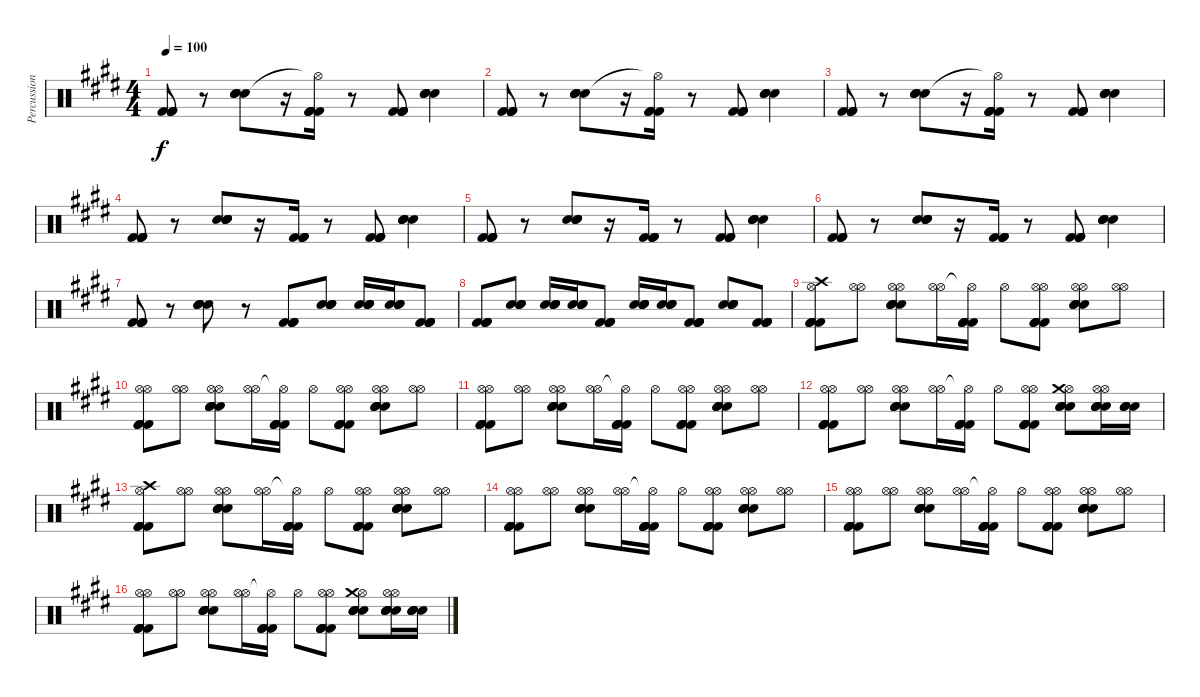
\track ("Percussion" "Percussion") {instrument percussion}
\staff {score}
\articulation defaults
\ts (4 4)
\tempo 100
\clef neutral
\ks e
("Kick (hit) 2" "Kick (hit) 2" "Kick (hit) 2" "Kick (hit) 2").8{dy f} r.8 ("Electric Snare (hit)" "Electric Snare (hit)" "Electric Snare (hit)" "Electric Snare (hit)").8 r.16 ("Hi-Hat (open)"{t} "Kick (hit) 2" "Kick (hit) 2" "Kick (hit) 2" "Kick (hit) 2").16 r.8 ("Kick (hit) 2" "Kick (hit) 2" "Kick (hit) 2" "Kick (hit) 2").8 ("Electric Snare (hit)" "Electric Snare (hit)" "Electric Snare (hit)" "Electric Snare (hit)").4 |
("Kick (hit) 2" "Kick (hit) 2" "Kick (hit) 2" "Kick (hit) 2").8 r.8 ("Electric Snare (hit)" "Electric Snare (hit)" "Electric Snare (hit)" "Electric Snare (hit)").8 r.16 ("Hi-Hat (open)"{t} "Kick (hit) 2" "Kick (hit) 2" "Kick (hit) 2" "Kick (hit) 2").16 r.8 ("Kick (hit) 2" "Kick (hit) 2" "Kick (hit) 2" "Kick (hit) 2").8 ("Electric Snare (hit)" "Electric Snare (hit)" "Electric Snare (hit)" "Electric Snare (hit)").4 |
("Kick (hit) 2" "Kick (hit) 2" "Kick (hit) 2" "Kick (hit) 2").8 r.8 ("Electric Snare (hit)" "Electric Snare (hit)" "Electric Snare (hit)" "Electric Snare (hit)").8 r.16 ("Hi-Hat (open)"{t} "Kick (hit) 2" "Kick (hit) 2" "Kick (hit) 2" "Kick (hit) 2").16 r.8 ("Kick (hit) 2" "Kick (hit) 2" "Kick (hit) 2" "Kick (hit) 2").8 ("Electric Snare (hit)" "Electric Snare (hit)" "Electric Snare (hit)" "Electric Snare (hit)").4 |
("Kick (hit) 2" "Kick (hit) 2" "Kick (hit) 2" "Kick (hit) 2").8 r.8 ("Electric Snare (hit)" "Electric Snare (hit)" "Electric Snare (hit)" "Electric Snare (hit)").8 r.16 ("Kick (hit) 2" "Kick (hit) 2" "Kick (hit) 2" "Kick (hit) 2").16 r.8 ("Kick (hit) 2" "Kick (hit) 2" "Kick (hit) 2" "Kick (hit) 2").8 ("Electric Snare (hit)" "Electric Snare (hit)" "Electric Snare (hit)" "Electric Snare (hit)").4 |
("Kick (hit) 2" "Kick (hit) 2" "Kick (hit) 2" "Kick (hit) 2").8 r.8 ("Electric Snare (hit)" "Electric Snare (hit)" "Electric Snare (hit)" "Electric Snare (hit)").8 r.16 ("Kick (hit) 2" "Kick (hit) 2" "Kick (hit) 2" "Kick (hit) 2").16 r.8 ("Kick (hit) 2" "Kick (hit) 2" "Kick (hit) 2" "Kick (hit) 2").8 ("Electric Snare (hit)" "Electric Snare (hit)" "Electric Snare (hit)" "Electric Snare (hit)").4 |
("Kick (hit) 2" "Kick (hit) 2" "Kick (hit) 2" "Kick (hit) 2").8 r.8 ("Electric Snare (hit)" "Electric Snare (hit)" "Electric Snare (hit)" "Electric Snare (hit)").8 r.16 ("Kick (hit) 2" "Kick (hit) 2" "Kick (hit) 2" "Kick (hit) 2").16 r.8 ("Kick (hit) 2" "Kick (hit) 2" "Kick (hit) 2" "Kick (hit) 2").8 ("Electric Snare (hit)" "Electric Snare (hit)" "Electric Snare (hit)" "Electric Snare (hit)").4 |
("Kick (hit) 2" "Kick (hit) 2" "Kick (hit) 2" "Kick (hit) 2").8 r.8 ("Electric Snare (hit)" "Electric Snare (hit)" "Electric Snare (hit)" "Electric Snare (hit)").8 r.8 ("Kick (hit) 2" "Kick (hit) 2" "Kick (hit) 2" "Kick (hit) 2").8 ("Electric Snare (hit)" "Electric Snare (hit)" "Electric Snare (hit)" "Electric Snare (hit)").8 ("Electric Snare (hit)" "Electric Snare (hit)" "Electric Snare (hit)" "Electric Snare (hit)").16 ("Electric Snare (hit)" "Electric Snare (hit)" "Electric Snare (hit)" "Electric Snare (hit)").16 ("Kick (hit) 2" "Kick (hit) 2" "Kick (hit) 2" "Kick (hit) 2").8 |
("Kick (hit) 2" "Kick (hit) 2" "Kick (hit) 2" "Kick (hit) 2").8 ("Electric Snare (hit)" "Electric Snare (hit)" "Electric Snare (hit)" "Electric Snare (hit)").8 ("Electric Snare (hit)" "Electric Snare (hit)" "Electric Snare (hit)" "Electric Snare (hit)").16 ("Electric Snare (hit)" "Electric Snare (hit)" "Electric Snare (hit)" "Electric Snare (hit)").16 ("Kick (hit) 2" "Kick (hit) 2" "Kick (hit) 2" "Kick (hit) 2").8 ("Electric Snare (hit)" "Electric Snare (hit)" "Electric Snare (hit)" "Electric Snare (hit)").16 ("Electric Snare (hit)" "Electric Snare (hit)" "Electric Snare (hit)" "Electric Snare (hit)").16 ("Kick (hit) 2" "Kick (hit) 2" "Kick (hit) 2" "Kick (hit) 2").8 ("Electric Snare (hit)" "Electric Snare (hit)" "Electric Snare (hit)" "Electric Snare (hit)").8 ("Kick (hit) 2" "Kick (hit) 2" "Kick (hit) 2" "Kick (hit) 2").8 |
("Hi-Hat (open)" "Kick (hit) 2" "Kick (hit) 2" "Kick (hit) 2" "Kick (hit) 2" "Crash high (hit)").8 ("Hi-Hat (open)" "Hi-Hat (open)").8 ("Hi-Hat (open)" "Electric Snare (hit)" "Electric Snare (hit)" "Electric Snare (hit)" "Electric Snare (hit)" "Hi-Hat (open)").8 ("Hi-Hat (open)" "Hi-Hat (open)").16 ("Hi-Hat (open)"{t} "Kick (hit) 2" "Kick (hit) 2" "Kick (hit) 2" "Kick (hit) 2").16 "Hi-Hat (open)".8 ("Hi-Hat (open)" "Kick (hit) 2" "Kick (hit) 2" "Kick (hit) 2" "Kick (hit) 2" "Hi-Hat (open)").8 ("Hi-Hat (open)" "Electric Snare (hit)" "Electric Snare (hit)" "Electric Snare (hit)" "Electric Snare (hit)" "Hi-Hat (open)").8 ("Hi-Hat (open)" "Hi-Hat (open)").8 |
("Hi-Hat (open)" "Kick (hit) 2" "Kick (hit) 2" "Kick (hit) 2" "Kick (hit) 2" "Hi-Hat (open)").8 ("Hi-Hat (open)" "Hi-Hat (open)").8 ("Hi-Hat (open)" "Electric Snare (hit)" "Electric Snare (hit)" "Electric Snare (hit)" "Electric Snare (hit)" "Hi-Hat (open)").8 ("Hi-Hat (open)" "Hi-Hat (open)").16 ("Hi-Hat (open)"{t} "Kick (hit) 2" "Kick (hit) 2" "Kick (hit) 2" "Kick (hit) 2").16 "Hi-Hat (open)".8 ("Hi-Hat (open)" "Kick (hit) 2" "Kick (hit) 2" "Kick (hit) 2" "Kick (hit) 2" "Hi-Hat (open)").8 ("Hi-Hat (open)" "Electric Snare (hit)" "Electric Snare (hit)" "Electric Snare (hit)" "Electric Snare (hit)" "Hi-Hat (open)").8 ("Hi-Hat (open)" "Hi-Hat (open)").8 |
("Hi-Hat (open)" "Kick (hit) 2" "Kick (hit) 2" "Kick (hit) 2" "Kick (hit) 2" "Hi-Hat (open)").8 ("Hi-Hat (open)" "Hi-Hat (open)").8 ("Hi-Hat (open)" "Electric Snare (hit)" "Electric Snare (hit)" "Electric Snare (hit)" "Electric Snare (hit)" "Hi-Hat (open)").8 ("Hi-Hat (open)" "Hi-Hat (open)").16 ("Hi-Hat (open)"{t} "Kick (hit) 2" "Kick (hit) 2" "Kick (hit) 2" "Kick (hit) 2").16 "Hi-Hat (open)".8 ("Hi-Hat (open)" "Kick (hit) 2" "Kick (hit) 2" "Kick (hit) 2" "Kick (hit) 2" "Hi-Hat (open)").8 ("Hi-Hat (open)" "Electric Snare (hit)" "Electric Snare (hit)" "Electric Snare (hit)" "Electric Snare (hit)" "Hi-Hat (open)").8 ("Hi-Hat (open)" "Hi-Hat (open)").8 |
("Hi-Hat (open)" "Kick (hit) 2" "Kick (hit) 2" "Kick (hit) 2" "Kick (hit) 2" "Hi-Hat (open)").8 ("Hi-Hat (open)" "Hi-Hat (open)").8 ("Hi-Hat (open)" "Electric Snare (hit)" "Electric Snare (hit)" "Electric Snare (hit)" "Electric Snare (hit)" "Hi-Hat (open)").8 ("Hi-Hat (open)" "Hi-Hat (open)").16 ("Hi-Hat (open)"{t} "Kick (hit) 2" "Kick (hit) 2" "Kick (hit) 2" "Kick (hit) 2").16 "Hi-Hat (open)".8 ("Hi-Hat (open)" "Kick (hit) 2" "Kick (hit) 2" "Kick (hit) 2" "Kick (hit) 2" "Hi-Hat (open)").8 ("Hi-Hat (open)" "Electric Snare (hit)" "Electric Snare (hit)" "Electric Snare (hit)" "Electric Snare (hit)" "Crash medium (hit)").8 ("Hi-Hat (open)" "Electric Snare (hit)" "Electric Snare (hit)" "Electric Snare (hit)" "Electric Snare (hit)" "Hi-Hat (open)").16 ("Electric Snare (hit)" "Electric Snare (hit)" "Electric Snare (hit)" "Electric Snare (hit)").16 |
("Hi-Hat (open)" "Kick (hit) 2" "Kick (hit) 2" "Kick (hit) 2" "Kick (hit) 2" "Crash high (hit)").8 ("Hi-Hat (open)" "Hi-Hat (open)").8 ("Hi-Hat (open)" "Electric Snare (hit)" "Electric Snare (hit)" "Electric Snare (hit)" "Electric Snare (hit)" "Hi-Hat (open)").8 ("Hi-Hat (open)" "Hi-Hat (open)").16 ("Hi-Hat (open)"{t} "Kick (hit) 2" "Kick (hit) 2" "Kick (hit) 2" "Kick (hit) 2").16 "Hi-Hat (open)".8 ("Hi-Hat (open)" "Kick (hit) 2" "Kick (hit) 2" "Kick (hit) 2" "Kick (hit) 2" "Hi-Hat (open)").8 ("Hi-Hat (open)" "Electric Snare (hit)" "Electric Snare (hit)" "Electric Snare (hit)" "Electric Snare (hit)" "Hi-Hat (open)").8 ("Hi-Hat (open)" "Hi-Hat (open)").8 |
("Hi-Hat (open)" "Kick (hit) 2" "Kick (hit) 2" "Kick (hit) 2" "Kick (hit) 2" "Hi-Hat (open)").8 ("Hi-Hat (open)" "Hi-Hat (open)").8 ("Hi-Hat (open)" "Electric Snare (hit)" "Electric Snare (hit)" "Electric Snare (hit)" "Electric Snare (hit)" "Hi-Hat (open)").8 ("Hi-Hat (open)" "Hi-Hat (open)").16 ("Hi-Hat (open)"{t} "Kick (hit) 2" "Kick (hit) 2" "Kick (hit) 2" "Kick (hit) 2").16 "Hi-Hat (open)".8 ("Hi-Hat (open)" "Kick (hit) 2" "Kick (hit) 2" "Kick (hit) 2" "Kick (hit) 2" "Hi-Hat (open)").8 ("Hi-Hat (open)" "Electric Snare (hit)" "Electric Snare (hit)" "Electric Snare (hit)" "Electric Snare (hit)" "Hi-Hat (open)").8 ("Hi-Hat (open)" "Hi-Hat (open)").8 |
("Hi-Hat (open)" "Kick (hit) 2" "Kick (hit) 2" "Kick (hit) 2" "Kick (hit) 2" "Hi-Hat (open)").8 ("Hi-Hat (open)" "Hi-Hat (open)").8 ("Hi-Hat (open)" "Electric Snare (hit)" "Electric Snare (hit)" "Electric Snare (hit)" "Electric Snare (hit)" "Hi-Hat (open)").8 ("Hi-Hat (open)" "Hi-Hat (open)").16 ("Hi-Hat (open)"{t} "Kick (hit) 2" "Kick (hit) 2" "Kick (hit) 2" "Kick (hit) 2").16 "Hi-Hat (open)".8 ("Hi-Hat (open)" "Kick (hit) 2" "Kick (hit) 2" "Kick (hit) 2" "Kick (hit) 2" "Hi-Hat (open)").8 ("Hi-Hat (open)" "Electric Snare (hit)" "Electric Snare (hit)" "Electric Snare (hit)" "Electric Snare (hit)" "Hi-Hat (open)").8 ("Hi-Hat (open)" "Hi-Hat (open)").8 |
("Hi-Hat (open)" "Kick (hit) 2" "Kick (hit) 2" "Kick (hit) 2" "Kick (hit) 2" "Hi-Hat (open)").8 ("Hi-Hat (open)" "Hi-Hat (open)").8 ("Hi-Hat (open)" "Electric Snare (hit)" "Electric Snare (hit)" "Electric Snare (hit)" "Electric Snare (hit)" "Hi-Hat (open)").8 ("Hi-Hat (open)" "Hi-Hat (open)").16 ("Hi-Hat (open)"{t} "Kick (hit) 2" "Kick (hit) 2" "Kick (hit) 2" "Kick (hit) 2").16 "Hi-Hat (open)".8 ("Hi-Hat (open)" "Kick (hit) 2" "Kick (hit) 2" "Kick (hit) 2" "Kick (hit) 2" "Hi-Hat (open)").8 ("Hi-Hat (open)" "Electric Snare (hit)" "Electric Snare (hit)" "Electric Snare (hit)" "Electric Snare (hit)" "Crash medium (hit)").8 ("Hi-Hat (open)" "Electric Snare (hit)" "Electric Snare (hit)" "Electric Snare (hit)" "Electric Snare (hit)" "Hi-Hat (open)").16 ("Electric Snare (hit)" "Electric Snare (hit)" "Electric Snare (hit)" "Electric Snare (hit)").16
